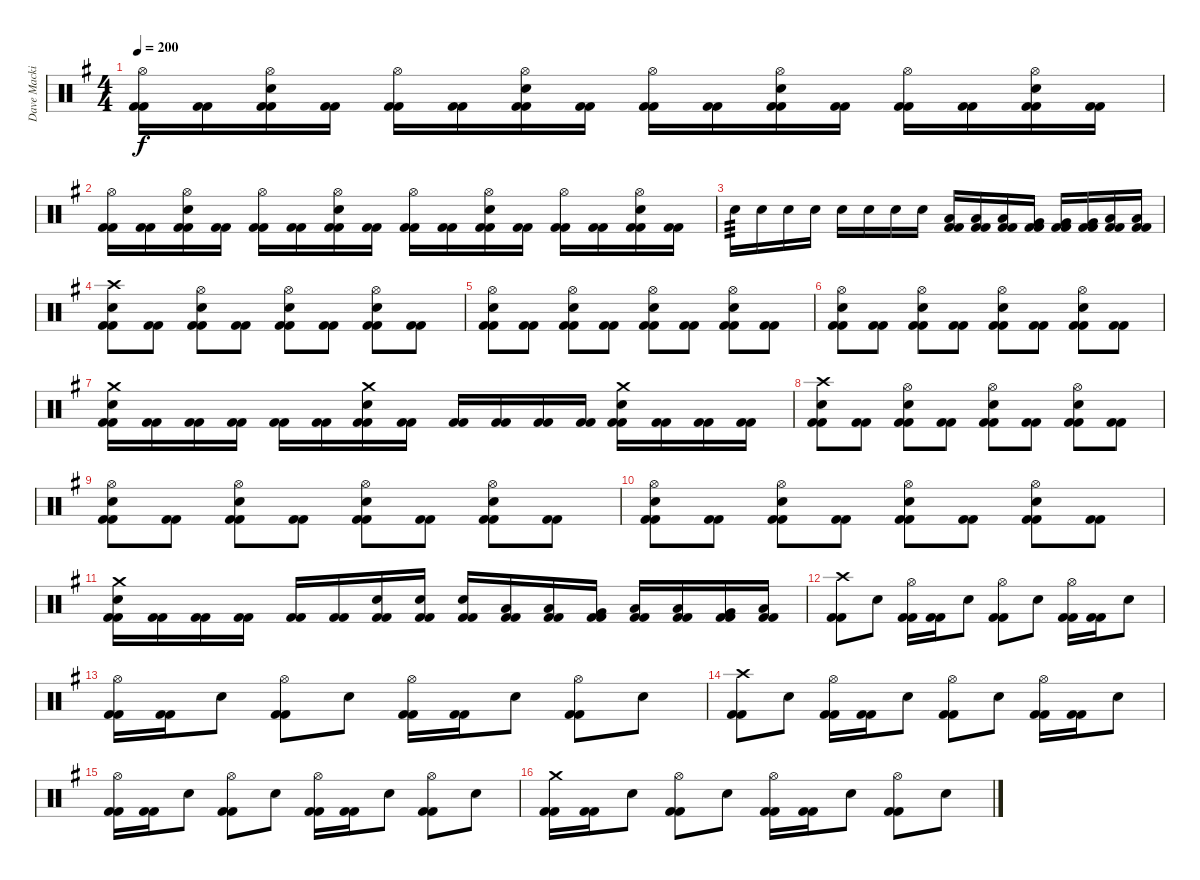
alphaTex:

\track ("Dave Mackintosh" "Dave Macki") {instrument percussion}
\staff {score}
\articulation defaults
\ts (4 4)
\tempo 200
\clef neutral
\ks g
("Hi-Hat (open)" "Kick (hit) 2" "Kick (hit) 2").16{dy f} ("Kick (hit) 2" "Kick (hit) 2").16 ("Hi-Hat (open)" "Electric Snare (hit)" "Kick (hit) 2" "Kick (hit) 2").16 ("Kick (hit) 2" "Kick (hit) 2").16 ("Hi-Hat (open)" "Kick (hit) 2" "Kick (hit) 2").16 ("Kick (hit) 2" "Kick (hit) 2").16 ("Hi-Hat (open)" "Electric Snare (hit)" "Kick (hit) 2" "Kick (hit) 2").16 ("Kick (hit) 2" "Kick (hit) 2").16 ("Hi-Hat (open)" "Kick (hit) 2" "Kick (hit) 2").16 ("Kick (hit) 2" "Kick (hit) 2").16 ("Hi-Hat (open)" "Electric Snare (hit)" "Kick (hit) 2" "Kick (hit) 2").16 ("Kick (hit) 2" "Kick (hit) 2").16 ("Hi-Hat (open)" "Kick (hit) 2" "Kick (hit) 2").16 ("Kick (hit) 2" "Kick (hit) 2").16 ("Hi-Hat (open)" "Electric Snare (hit)" "Kick (hit) 2" "Kick (hit) 2").16 ("Kick (hit) 2" "Kick (hit) 2").16 |
("Hi-Hat (open)" "Kick (hit) 2" "Kick (hit) 2").16 ("Kick (hit) 2" "Kick (hit) 2").16 ("Hi-Hat (open)" "Electric Snare (hit)" "Kick (hit) 2" "Kick (hit) 2").16 ("Kick (hit) 2" "Kick (hit) 2").16 ("Hi-Hat (open)" "Kick (hit) 2" "Kick (hit) 2").16 ("Kick (hit) 2" "Kick (hit) 2").16 ("Hi-Hat (open)" "Electric Snare (hit)" "Kick (hit) 2" "Kick (hit) 2").16 ("Kick (hit) 2" "Kick (hit) 2").16 ("Hi-Hat (open)" "Kick (hit) 2" "Kick (hit) 2").16 ("Kick (hit) 2" "Kick (hit) 2").16 ("Hi-Hat (open)" "Electric Snare (hit)" "Kick (hit) 2" "Kick (hit) 2").16 ("Kick (hit) 2" "Kick (hit) 2").16 ("Hi-Hat (open)" "Kick (hit) 2" "Kick (hit) 2").16 ("Kick (hit) 2" "Kick (hit) 2").16 ("Hi-Hat (open)" "Electric Snare (hit)" "Kick (hit) 2" "Kick (hit) 2").16 ("Kick (hit) 2" "Kick (hit) 2").16 |
"Electric Snare (hit)".16{tp 3} "Electric Snare (hit)".16 "Electric Snare (hit)".16 "Electric Snare (hit)".16 "Electric Snare (hit)".16 "Electric Snare (hit)".16 "Electric Snare (hit)".16 "Electric Snare (hit)".16 ("Low Tom (hit)" "Kick (hit) 2" "Kick (hit) 2").16 ("Low Tom (hit)" "Kick (hit) 2" "Kick (hit) 2").16 ("Low Tom (hit)" "Kick (hit) 2" "Kick (hit) 2").16 ("Very Low Tom (hit)" "Kick (hit) 2" "Kick (hit) 2").16 ("Very Low Tom (hit)" "Kick (hit) 2" "Kick (hit) 2").16 ("Very Low Tom (hit)" "Kick (hit) 2" "Kick (hit) 2").16 ("Low Floor Tom (hit)" "Kick (hit) 2" "Kick (hit) 2").16 ("Low Floor Tom (hit)" "Kick (hit) 2" "Kick (hit) 2").16 |
("Crash high (hit)" "Electric Snare (hit)" "Kick (hit) 2" "Kick (hit) 2").8 ("Kick (hit) 2" "Kick (hit) 2").8 ("Hi-Hat (open)" "Electric Snare (hit)" "Kick (hit) 2" "Kick (hit) 2").8 ("Kick (hit) 2" "Kick (hit) 2").8 ("Hi-Hat (open)" "Electric Snare (hit)" "Kick (hit) 2" "Kick (hit) 2").8 ("Kick (hit) 2" "Kick (hit) 2").8 ("Hi-Hat (open)" "Electric Snare (hit)" "Kick (hit) 2" "Kick (hit) 2").8 ("Kick (hit) 2" "Kick (hit) 2").8 |
("Hi-Hat (open)" "Electric Snare (hit)" "Kick (hit) 2" "Kick (hit) 2").8 ("Kick (hit) 2" "Kick (hit) 2").8 ("Hi-Hat (open)" "Electric Snare (hit)" "Kick (hit) 2" "Kick (hit) 2").8 ("Kick (hit) 2" "Kick (hit) 2").8 ("Hi-Hat (open)" "Electric Snare (hit)" "Kick (hit) 2" "Kick (hit) 2").8 ("Kick (hit) 2" "Kick (hit) 2").8 ("Hi-Hat (open)" "Electric Snare (hit)" "Kick (hit) 2" "Kick (hit) 2").8 ("Kick (hit) 2" "Kick (hit) 2").8 |
("Hi-Hat (open)" "Electric Snare (hit)" "Kick (hit) 2" "Kick (hit) 2").8 ("Kick (hit) 2" "Kick (hit) 2").8 ("Hi-Hat (open)" "Electric Snare (hit)" "Kick (hit) 2" "Kick (hit) 2").8 ("Kick (hit) 2" "Kick (hit) 2").8 ("Hi-Hat (open)" "Electric Snare (hit)" "Kick (hit) 2" "Kick (hit) 2").8 ("Kick (hit) 2" "Kick (hit) 2").8 ("Hi-Hat (open)" "Electric Snare (hit)" "Kick (hit) 2" "Kick (hit) 2").8 ("Kick (hit) 2" "Kick (hit) 2").8 |
("Crash medium (hit)" "Electric Snare (hit)" "Kick (hit) 2" "Kick (hit) 2").16 ("Kick (hit) 2" "Kick (hit) 2").16 ("Kick (hit) 2" "Kick (hit) 2").16 ("Kick (hit) 2" "Kick (hit) 2").16 ("Kick (hit) 2" "Kick (hit) 2").16 ("Kick (hit) 2" "Kick (hit) 2").16 ("Crash medium (hit)" "Electric Snare (hit)" "Kick (hit) 2" "Kick (hit) 2").16 ("Kick (hit) 2" "Kick (hit) 2").16 ("Kick (hit) 2" "Kick (hit) 2").16 ("Kick (hit) 2" "Kick (hit) 2").16 ("Kick (hit) 2" "Kick (hit) 2").16 ("Kick (hit) 2" "Kick (hit) 2").16 ("Crash medium (hit)" "Electric Snare (hit)" "Kick (hit) 2" "Kick (hit) 2").16 ("Kick (hit) 2" "Kick (hit) 2").16 ("Kick (hit) 2" "Kick (hit) 2").16 ("Kick (hit) 2" "Kick (hit) 2").16 |
("Crash high (hit)" "Electric Snare (hit)" "Kick (hit) 2" "Kick (hit) 2").8 ("Kick (hit) 2" "Kick (hit) 2").8 ("Hi-Hat (open)" "Electric Snare (hit)" "Kick (hit) 2" "Kick (hit) 2").8 ("Kick (hit) 2" "Kick (hit) 2").8 ("Hi-Hat (open)" "Electric Snare (hit)" "Kick (hit) 2" "Kick (hit) 2").8 ("Kick (hit) 2" "Kick (hit) 2").8 ("Hi-Hat (open)" "Electric Snare (hit)" "Kick (hit) 2" "Kick (hit) 2").8 ("Kick (hit) 2" "Kick (hit) 2").8 |
("Hi-Hat (open)" "Electric Snare (hit)" "Kick (hit) 2" "Kick (hit) 2").8 ("Kick (hit) 2" "Kick (hit) 2").8 ("Hi-Hat (open)" "Electric Snare (hit)" "Kick (hit) 2" "Kick (hit) 2").8 ("Kick (hit) 2" "Kick (hit) 2").8 ("Hi-Hat (open)" "Electric Snare (hit)" "Kick (hit) 2" "Kick (hit) 2").8 ("Kick (hit) 2" "Kick (hit) 2").8 ("Hi-Hat (open)" "Electric Snare (hit)" "Kick (hit) 2" "Kick (hit) 2").8 ("Kick (hit) 2" "Kick (hit) 2").8 |
("Hi-Hat (open)" "Electric Snare (hit)" "Kick (hit) 2" "Kick (hit) 2").8 ("Kick (hit) 2" "Kick (hit) 2").8 ("Hi-Hat (open)" "Electric Snare (hit)" "Kick (hit) 2" "Kick (hit) 2").8 ("Kick (hit) 2" "Kick (hit) 2").8 ("Hi-Hat (open)" "Electric Snare (hit)" "Kick (hit) 2" "Kick (hit) 2").8 ("Kick (hit) 2" "Kick (hit) 2").8 ("Hi-Hat (open)" "Electric Snare (hit)" "Kick (hit) 2" "Kick (hit) 2").8 ("Kick (hit) 2" "Kick (hit) 2").8 |
("Crash medium (hit)" "Electric Snare (hit)" "Kick (hit) 2" "Kick (hit) 2").16 ("Kick (hit) 2" "Kick (hit) 2").16 ("Kick (hit) 2" "Kick (hit) 2").16 ("Kick (hit) 2" "Kick (hit) 2").16 ("Kick (hit) 2" "Kick (hit) 2").16 ("Kick (hit) 2" "Kick (hit) 2").16 ("Electric Snare (hit)" "Kick (hit) 2" "Kick (hit) 2").16 ("Electric Snare (hit)" "Kick (hit) 2" "Kick (hit) 2").16 ("Electric Snare (hit)" "Kick (hit) 2" "Kick (hit) 2").16 ("Low Tom (hit)" "Kick (hit) 2" "Kick (hit) 2").16 ("Low Tom (hit)" "Kick (hit) 2" "Kick (hit) 2").16 ("Very Low Tom (hit)" "Kick (hit) 2" "Kick (hit) 2").16 ("Low Floor Tom (hit)" "Kick (hit) 2" "Kick (hit) 2").16 ("Low Tom (hit)" "Kick (hit) 2" "Kick (hit) 2").16 ("Very Low Tom (hit)" "Kick (hit) 2" "Kick (hit) 2").16 ("Low Floor Tom (hit)" "Kick (hit) 2" "Kick (hit) 2").16 |
("Crash high (hit)" "Kick (hit) 2" "Kick (hit) 2").8 "Electric Snare (hit)".8 ("Hi-Hat (open)" "Kick (hit) 2" "Kick (hit) 2").16 ("Kick (hit) 2" "Kick (hit) 2").16 "Electric Snare (hit)".8 ("Hi-Hat (open)" "Kick (hit) 2" "Kick (hit) 2").8 "Electric Snare (hit)".8 ("Hi-Hat (open)" "Kick (hit) 2" "Kick (hit) 2").16 ("Kick (hit) 2" "Kick (hit) 2").16 "Electric Snare (hit)".8 |
("Hi-Hat (open)" "Kick (hit) 2" "Kick (hit) 2").16 ("Kick (hit) 2" "Kick (hit) 2").16 "Electric Snare (hit)".8 ("Hi-Hat (open)" "Kick (hit) 2" "Kick (hit) 2").8 "Electric Snare (hit)".8 ("Hi-Hat (open)" "Kick (hit) 2" "Kick (hit) 2").16 ("Kick (hit) 2" "Kick (hit) 2").16 "Electric Snare (hit)".8 ("Hi-Hat (open)" "Kick (hit) 2" "Kick (hit) 2").8 "Electric Snare (hit)".8 |
("Crash high (hit)" "Kick (hit) 2" "Kick (hit) 2").8 "Electric Snare (hit)".8 ("Hi-Hat (open)" "Kick (hit) 2" "Kick (hit) 2").16 ("Kick (hit) 2" "Kick (hit) 2").16 "Electric Snare (hit)".8 ("Hi-Hat (open)" "Kick (hit) 2" "Kick (hit) 2").8 "Electric Snare (hit)".8 ("Hi-Hat (open)" "Kick (hit) 2" "Kick (hit) 2").16 ("Kick (hit) 2" "Kick (hit) 2").16 "Electric Snare (hit)".8 |
("Hi-Hat (open)" "Kick (hit) 2" "Kick (hit) 2").16 ("Kick (hit) 2" "Kick (hit) 2").16 "Electric Snare (hit)".8 ("Hi-Hat (open)" "Kick (hit) 2" "Kick (hit) 2").8 "Electric Snare (hit)".8 ("Hi-Hat (open)" "Kick (hit) 2" "Kick (hit) 2").16 ("Kick (hit) 2" "Kick (hit) 2").16 "Electric Snare (hit)".8 ("Hi-Hat (open)" "Kick (hit) 2" "Kick (hit) 2").8 "Electric Snare (hit)".8 |
("Crash medium (hit)" "Kick (hit) 2" "Kick (hit) 2").16 ("Kick (hit) 2" "Kick (hit) 2").16 "Electric Snare (hit)".8 ("Hi-Hat (open)" "Kick (hit) 2" "Kick (hit) 2").8 "Electric Snare (hit)".8 ("Hi-Hat (open)" "Kick (hit) 2" "Kick (hit) 2").16 ("Kick (hit) 2" "Kick (hit) 2").16 "Electric Snare (hit)".8 ("Hi-Hat (open)" "Kick (hit) 2" "Kick (hit) 2").8 "Electric Snare (hit)".8
